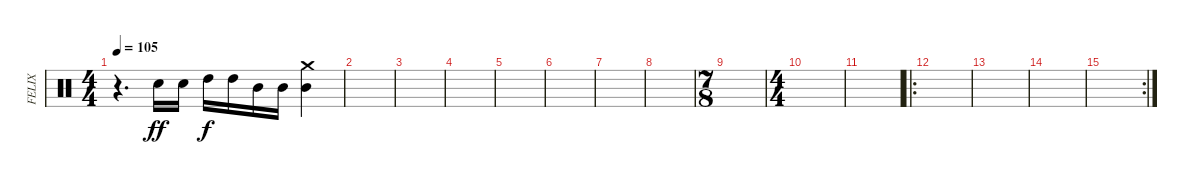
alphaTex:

\track ("FELIX" "FELIX") {instrument percussion}
\staff {score}
\articulation defaults
\ts (4 4)
\tempo 105
\clef neutral
\ks c
r.4{d dy ff} "Electric Snare (hit)".16 "Electric Snare (hit)".16 "High Tom (hit)".16{dy f} "High Tom (hit)".16 "Mid Tom (hit)".16 "Mid Tom (hit)".16 ("Crash medium (hit)" "Mid Tom (hit)").4 |
|
|
|
|
|
|
|
\ts (7 8)
|
\ts (4 4)
|
|
\ro
|
|
|
\rc 2
